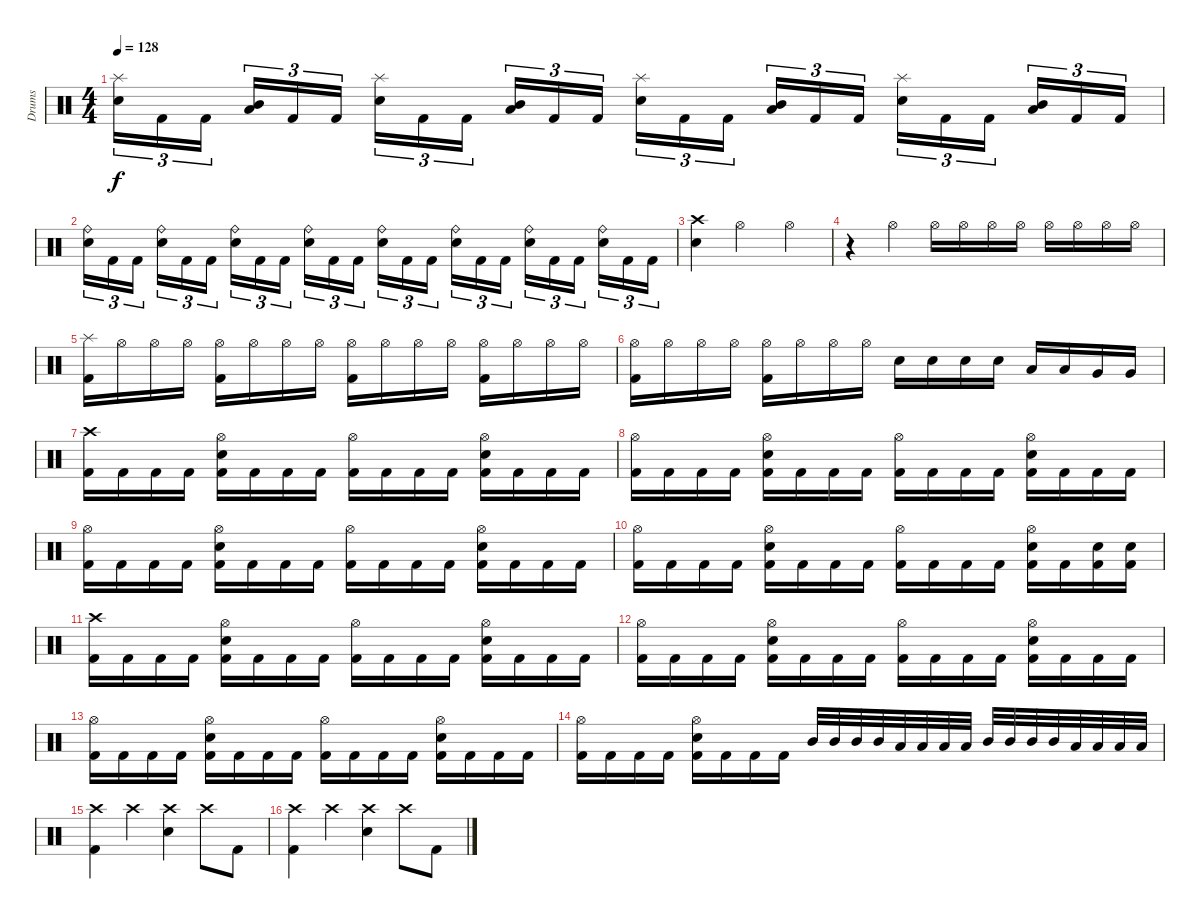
\track ("Drums" "Drums") {instrument percussion}
\staff {score}
\articulation defaults
\ts (4 4)
\tempo 128
\clef neutral
\ks c
("Splash (hit)" "Electric Snare (hit)").16{tu (3 2) dy f} "Kick (hit) 2".16{tu (3 2)} "Kick (hit) 2".16{tu (3 2) beam splitsecondary} ("Mid Tom (hit)" "Low Tom (hit)").16{tu (3 2)} "Kick (hit) 2".16{tu (3 2)} "Kick (hit) 2".16{tu (3 2)} ("Splash (hit)" "Electric Snare (hit)").16{tu (3 2)} "Kick (hit) 2".16{tu (3 2)} "Kick (hit) 2".16{tu (3 2) beam splitsecondary} ("Mid Tom (hit)" "Low Tom (hit)").16{tu (3 2)} "Kick (hit) 2".16{tu (3 2)} "Kick (hit) 2".16{tu (3 2)} ("Splash (hit)" "Electric Snare (hit)").16{tu (3 2)} "Kick (hit) 2".16{tu (3 2)} "Kick (hit) 2".16{tu (3 2) beam splitsecondary} ("Mid Tom (hit)" "Low Tom (hit)").16{tu (3 2)} "Kick (hit) 2".16{tu (3 2)} "Kick (hit) 2".16{tu (3 2)} ("Splash (hit)" "Electric Snare (hit)").16{tu (3 2)} "Kick (hit) 2".16{tu (3 2)} "Kick (hit) 2".16{tu (3 2) beam splitsecondary} ("Mid Tom (hit)" "Low Tom (hit)").16{tu (3 2)} "Kick (hit) 2".16{tu (3 2)} "Kick (hit) 2".16{tu (3 2)} |
("Ride (bell)" "Electric Snare (hit)").16{tu (3 2)} "Kick (hit) 2".16{tu (3 2)} "Kick (hit) 2".16{tu (3 2) beam splitsecondary} ("Ride (bell)" "Electric Snare (hit)").16{tu (3 2)} "Kick (hit) 2".16{tu (3 2)} "Kick (hit) 2".16{tu (3 2)} ("Ride (bell)" "Electric Snare (hit)").16{tu (3 2)} "Kick (hit) 2".16{tu (3 2)} "Kick (hit) 2".16{tu (3 2) beam splitsecondary} ("Ride (bell)" "Electric Snare (hit)").16{tu (3 2)} "Kick (hit) 2".16{tu (3 2)} "Kick (hit) 2".16{tu (3 2)} ("Ride (bell)" "Electric Snare (hit)").16{tu (3 2)} "Kick (hit) 2".16{tu (3 2)} "Kick (hit) 2".16{tu (3 2) beam splitsecondary} ("Ride (bell)" "Electric Snare (hit)").16{tu (3 2)} "Kick (hit) 2".16{tu (3 2)} "Kick (hit) 2".16{tu (3 2)} ("Ride (bell)" "Electric Snare (hit)").16{tu (3 2)} "Kick (hit) 2".16{tu (3 2)} "Kick (hit) 2".16{tu (3 2) beam splitsecondary} ("Ride (bell)" "Electric Snare (hit)").16{tu (3 2)} "Kick (hit) 2".16{tu (3 2)} "Kick (hit) 2".16{tu (3 2)} |
("Crash high (hit)" "Electric Snare (hit)").4 "Hi-Hat (open)".2 "Hi-Hat (open)".4 |
r.4 "Hi-Hat (open)".4 "Hi-Hat (open)".16 "Hi-Hat (open)".16 "Hi-Hat (open)".16 "Hi-Hat (open)".16 "Hi-Hat (open)".16 "Hi-Hat (open)".16 "Hi-Hat (open)".16 "Hi-Hat (open)".16 |
("Splash (hit)" "Kick (hit) 2").16 "Hi-Hat (open)".16 "Hi-Hat (open)".16 "Hi-Hat (open)".16 ("Hi-Hat (open)" "Kick (hit) 2").16 "Hi-Hat (open)".16 "Hi-Hat (open)".16 "Hi-Hat (open)".16 ("Hi-Hat (open)" "Kick (hit) 2").16 "Hi-Hat (open)".16 "Hi-Hat (open)".16 "Hi-Hat (open)".16 ("Hi-Hat (open)" "Kick (hit) 2").16 "Hi-Hat (open)".16 "Hi-Hat (open)".16 "Hi-Hat (open)".16 |
("Hi-Hat (open)" "Kick (hit) 2").16 "Hi-Hat (open)".16 "Hi-Hat (open)".16 "Hi-Hat (open)".16 ("Hi-Hat (open)" "Kick (hit) 2").16 "Hi-Hat (open)".16 "Hi-Hat (open)".16 "Hi-Hat (open)".16 "Electric Snare (hit)".16 "Electric Snare (hit)".16 "Electric Snare (hit)".16 "Electric Snare (hit)".16 "Low Tom (hit)".16 "Low Tom (hit)".16 "Very Low Tom (hit)".16 "Very Low Tom (hit)".16 |
("Crash high (hit)" "Kick (hit) 2").16 "Kick (hit) 2".16 "Kick (hit) 2".16 "Kick (hit) 2".16 ("Hi-Hat (open)" "Electric Snare (hit)" "Kick (hit) 2").16 "Kick (hit) 2".16 "Kick (hit) 2".16 "Kick (hit) 2".16 ("Hi-Hat (open)" "Kick (hit) 2").16 "Kick (hit) 2".16 "Kick (hit) 2".16 "Kick (hit) 2".16 ("Hi-Hat (open)" "Electric Snare (hit)" "Kick (hit) 2").16 "Kick (hit) 2".16 "Kick (hit) 2".16 "Kick (hit) 2".16 |
("Hi-Hat (open)" "Kick (hit) 2").16 "Kick (hit) 2".16 "Kick (hit) 2".16 "Kick (hit) 2".16 ("Hi-Hat (open)" "Electric Snare (hit)" "Kick (hit) 2").16 "Kick (hit) 2".16 "Kick (hit) 2".16 "Kick (hit) 2".16 ("Hi-Hat (open)" "Kick (hit) 2").16 "Kick (hit) 2".16 "Kick (hit) 2".16 "Kick (hit) 2".16 ("Hi-Hat (open)" "Electric Snare (hit)" "Kick (hit) 2").16 "Kick (hit) 2".16 "Kick (hit) 2".16 "Kick (hit) 2".16 |
("Hi-Hat (open)" "Kick (hit) 2").16 "Kick (hit) 2".16 "Kick (hit) 2".16 "Kick (hit) 2".16 ("Hi-Hat (open)" "Electric Snare (hit)" "Kick (hit) 2").16 "Kick (hit) 2".16 "Kick (hit) 2".16 "Kick (hit) 2".16 ("Hi-Hat (open)" "Kick (hit) 2").16 "Kick (hit) 2".16 "Kick (hit) 2".16 "Kick (hit) 2".16 ("Hi-Hat (open)" "Electric Snare (hit)" "Kick (hit) 2").16 "Kick (hit) 2".16 "Kick (hit) 2".16 "Kick (hit) 2".16 |
("Hi-Hat (open)" "Kick (hit) 2").16 "Kick (hit) 2".16 "Kick (hit) 2".16 "Kick (hit) 2".16 ("Hi-Hat (open)" "Electric Snare (hit)" "Kick (hit) 2").16 "Kick (hit) 2".16 "Kick (hit) 2".16 "Kick (hit) 2".16 ("Hi-Hat (open)" "Kick (hit) 2").16 "Kick (hit) 2".16 "Kick (hit) 2".16 "Kick (hit) 2".16 ("Hi-Hat (open)" "Electric Snare (hit)" "Kick (hit) 2").16 "Kick (hit) 2".16 ("Electric Snare (hit)" "Kick (hit) 2").16 ("Electric Snare (hit)" "Kick (hit) 2").16 |
("Crash high (hit)" "Kick (hit) 2").16 "Kick (hit) 2".16 "Kick (hit) 2".16 "Kick (hit) 2".16 ("Hi-Hat (open)" "Electric Snare (hit)" "Kick (hit) 2").16 "Kick (hit) 2".16 "Kick (hit) 2".16 "Kick (hit) 2".16 ("Hi-Hat (open)" "Kick (hit) 2").16 "Kick (hit) 2".16 "Kick (hit) 2".16 "Kick (hit) 2".16 ("Hi-Hat (open)" "Electric Snare (hit)" "Kick (hit) 2").16 "Kick (hit) 2".16 "Kick (hit) 2".16 "Kick (hit) 2".16 |
("Hi-Hat (open)" "Kick (hit) 2").16 "Kick (hit) 2".16 "Kick (hit) 2".16 "Kick (hit) 2".16 ("Hi-Hat (open)" "Electric Snare (hit)" "Kick (hit) 2").16 "Kick (hit) 2".16 "Kick (hit) 2".16 "Kick (hit) 2".16 ("Hi-Hat (open)" "Kick (hit) 2").16 "Kick (hit) 2".16 "Kick (hit) 2".16 "Kick (hit) 2".16 ("Hi-Hat (open)" "Electric Snare (hit)" "Kick (hit) 2").16 "Kick (hit) 2".16 "Kick (hit) 2".16 "Kick (hit) 2".16 |
("Hi-Hat (open)" "Kick (hit) 2").16 "Kick (hit) 2".16 "Kick (hit) 2".16 "Kick (hit) 2".16 ("Hi-Hat (open)" "Electric Snare (hit)" "Kick (hit) 2").16 "Kick (hit) 2".16 "Kick (hit) 2".16 "Kick (hit) 2".16 ("Hi-Hat (open)" "Kick (hit) 2").16 "Kick (hit) 2".16 "Kick (hit) 2".16 "Kick (hit) 2".16 ("Hi-Hat (open)" "Electric Snare (hit)" "Kick (hit) 2").16 "Kick (hit) 2".16 "Kick (hit) 2".16 "Kick (hit) 2".16 |
("Hi-Hat (open)" "Kick (hit) 2").16 "Kick (hit) 2".16 "Kick (hit) 2".16 "Kick (hit) 2".16 ("Hi-Hat (open)" "Electric Snare (hit)" "Kick (hit) 2").16 "Kick (hit) 2".16 "Kick (hit) 2".16 "Kick (hit) 2".16 "Mid Tom (hit)".32 "Mid Tom (hit)".32 "Mid Tom (hit)".32 "Mid Tom (hit)".32 "Low Tom (hit)".32 "Low Tom (hit)".32 "Low Tom (hit)".32 "Low Tom (hit)".32 "Mid Tom (hit)".32 "Mid Tom (hit)".32 "Mid Tom (hit)".32 "Mid Tom (hit)".32 "Low Tom (hit)".32 "Low Tom (hit)".32 "Low Tom (hit)".32 "Low Tom (hit)".32 |
("Crash high (hit)" "Kick (hit) 2").4 "Crash high (hit)".4 ("Crash high (hit)" "Electric Snare (hit)").4 "Crash high (hit)".8 "Kick (hit) 2".8 |
("Crash high (hit)" "Kick (hit) 2").4 "Crash high (hit)".4 ("Crash high (hit)" "Electric Snare (hit)").4 "Crash high (hit)".8 "Kick (hit) 2".8
